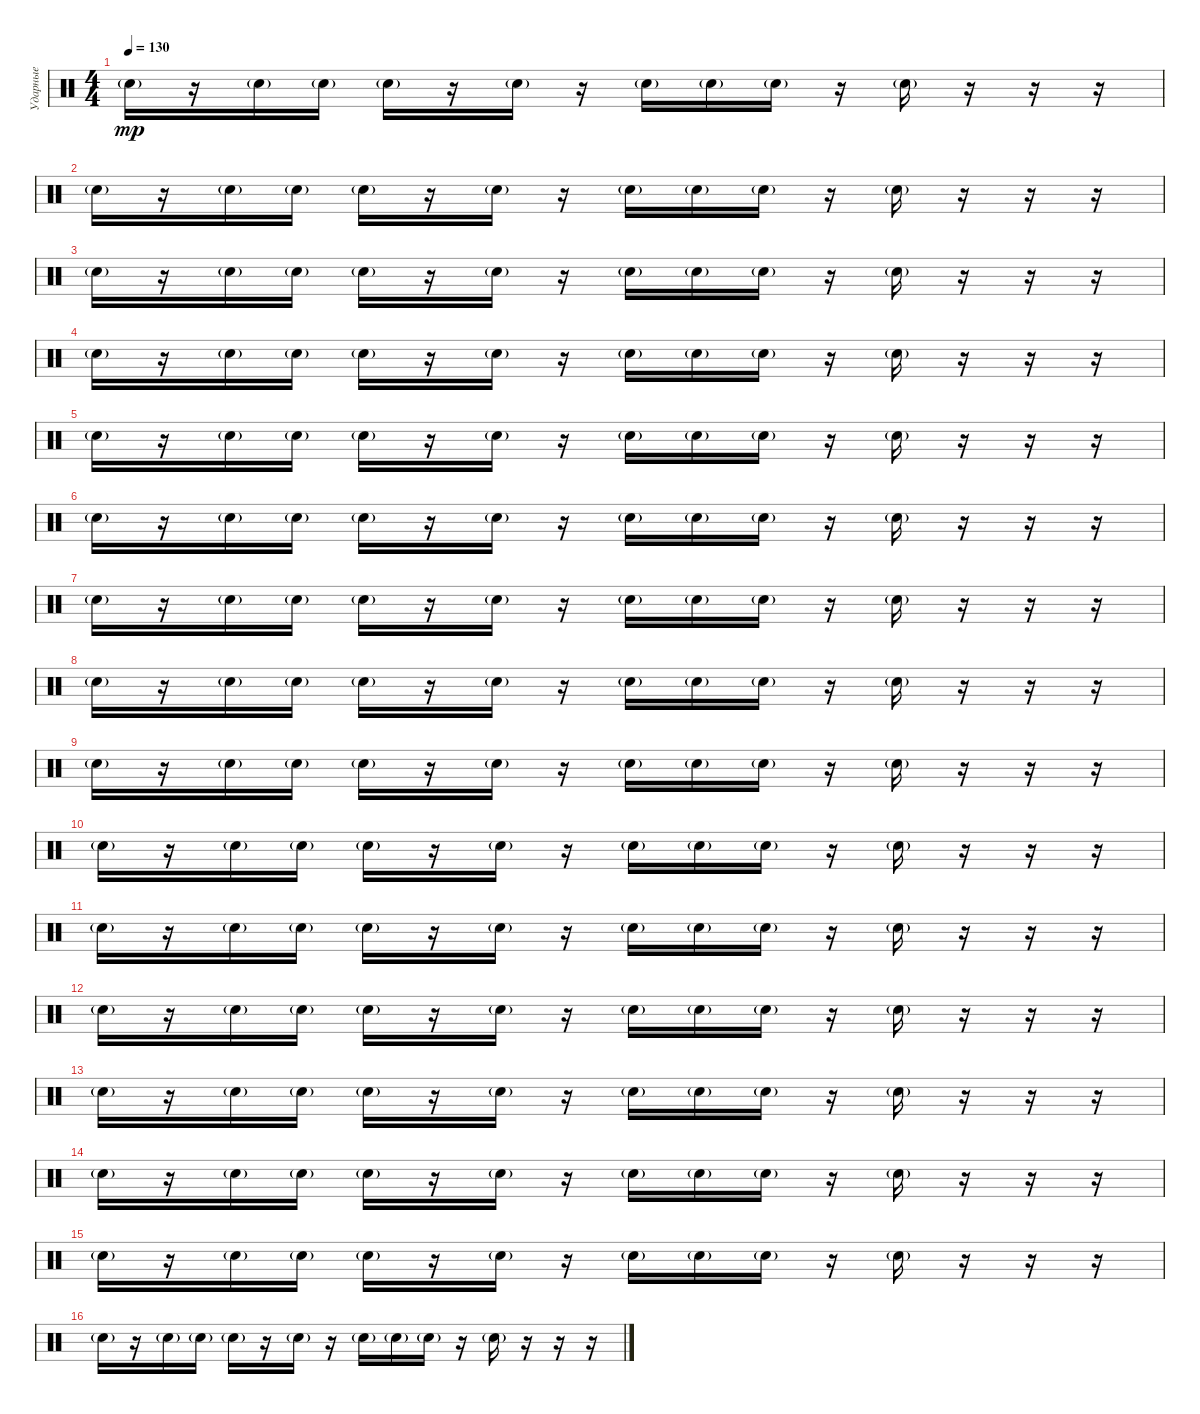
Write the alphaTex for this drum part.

\track ("Ударные" "Ударные") {instrument percussion}
\staff {score}
\articulation defaults
\ts (4 4)
\tempo 130
\clef neutral
\ks c "Electric Snare (hit)"{g}.16{dy mp}
r.16 "Electric Snare (hit)"{g}.16 "Electric Snare (hit)"{g}.16 "Electric Snare (hit)"{g}.16 r.16 "Electric Snare (hit)"{g}.16 r.16 "Electric Snare (hit)"{g}.16 "Electric Snare (hit)"{g}.16 "Electric Snare (hit)"{g}.16 r.16 "Electric Snare (hit)"{g}.16 r.16 r.16 r.16 |
"Electric Snare (hit)"{g}.16 r.16 "Electric Snare (hit)"{g}.16 "Electric Snare (hit)"{g}.16 "Electric Snare (hit)"{g}.16 r.16 "Electric Snare (hit)"{g}.16 r.16 "Electric Snare (hit)"{g}.16 "Electric Snare (hit)"{g}.16 "Electric Snare (hit)"{g}.16 r.16 "Electric Snare (hit)"{g}.16 r.16 r.16 r.16 |
"Electric Snare (hit)"{g}.16 r.16 "Electric Snare (hit)"{g}.16 "Electric Snare (hit)"{g}.16 "Electric Snare (hit)"{g}.16 r.16 "Electric Snare (hit)"{g}.16 r.16 "Electric Snare (hit)"{g}.16 "Electric Snare (hit)"{g}.16 "Electric Snare (hit)"{g}.16 r.16 "Electric Snare (hit)"{g}.16 r.16 r.16 r.16 |
"Electric Snare (hit)"{g}.16 r.16 "Electric Snare (hit)"{g}.16 "Electric Snare (hit)"{g}.16 "Electric Snare (hit)"{g}.16 r.16 "Electric Snare (hit)"{g}.16 r.16 "Electric Snare (hit)"{g}.16 "Electric Snare (hit)"{g}.16 "Electric Snare (hit)"{g}.16 r.16 "Electric Snare (hit)"{g}.16 r.16 r.16 r.16 |
"Electric Snare (hit)"{g}.16 r.16 "Electric Snare (hit)"{g}.16 "Electric Snare (hit)"{g}.16 "Electric Snare (hit)"{g}.16 r.16 "Electric Snare (hit)"{g}.16 r.16 "Electric Snare (hit)"{g}.16 "Electric Snare (hit)"{g}.16 "Electric Snare (hit)"{g}.16 r.16 "Electric Snare (hit)"{g}.16 r.16 r.16 r.16 |
"Electric Snare (hit)"{g}.16 r.16 "Electric Snare (hit)"{g}.16 "Electric Snare (hit)"{g}.16 "Electric Snare (hit)"{g}.16 r.16 "Electric Snare (hit)"{g}.16 r.16 "Electric Snare (hit)"{g}.16 "Electric Snare (hit)"{g}.16 "Electric Snare (hit)"{g}.16 r.16 "Electric Snare (hit)"{g}.16 r.16 r.16 r.16 |
"Electric Snare (hit)"{g}.16 r.16 "Electric Snare (hit)"{g}.16 "Electric Snare (hit)"{g}.16 "Electric Snare (hit)"{g}.16 r.16 "Electric Snare (hit)"{g}.16 r.16 "Electric Snare (hit)"{g}.16 "Electric Snare (hit)"{g}.16 "Electric Snare (hit)"{g}.16 r.16 "Electric Snare (hit)"{g}.16 r.16 r.16 r.16 |
"Electric Snare (hit)"{g}.16 r.16 "Electric Snare (hit)"{g}.16 "Electric Snare (hit)"{g}.16 "Electric Snare (hit)"{g}.16 r.16 "Electric Snare (hit)"{g}.16 r.16 "Electric Snare (hit)"{g}.16 "Electric Snare (hit)"{g}.16 "Electric Snare (hit)"{g}.16 r.16 "Electric Snare (hit)"{g}.16 r.16 r.16 r.16 |
"Electric Snare (hit)"{g}.16 r.16 "Electric Snare (hit)"{g}.16 "Electric Snare (hit)"{g}.16 "Electric Snare (hit)"{g}.16 r.16 "Electric Snare (hit)"{g}.16 r.16 "Electric Snare (hit)"{g}.16 "Electric Snare (hit)"{g}.16 "Electric Snare (hit)"{g}.16 r.16 "Electric Snare (hit)"{g}.16 r.16 r.16 r.16 |
"Electric Snare (hit)"{g}.16 r.16 "Electric Snare (hit)"{g}.16 "Electric Snare (hit)"{g}.16 "Electric Snare (hit)"{g}.16 r.16 "Electric Snare (hit)"{g}.16 r.16 "Electric Snare (hit)"{g}.16 "Electric Snare (hit)"{g}.16 "Electric Snare (hit)"{g}.16 r.16 "Electric Snare (hit)"{g}.16 r.16 r.16 r.16 |
"Electric Snare (hit)"{g}.16 r.16 "Electric Snare (hit)"{g}.16 "Electric Snare (hit)"{g}.16 "Electric Snare (hit)"{g}.16 r.16 "Electric Snare (hit)"{g}.16 r.16 "Electric Snare (hit)"{g}.16 "Electric Snare (hit)"{g}.16 "Electric Snare (hit)"{g}.16 r.16 "Electric Snare (hit)"{g}.16 r.16 r.16 r.16 |
"Electric Snare (hit)"{g}.16 r.16 "Electric Snare (hit)"{g}.16 "Electric Snare (hit)"{g}.16 "Electric Snare (hit)"{g}.16 r.16 "Electric Snare (hit)"{g}.16 r.16 "Electric Snare (hit)"{g}.16 "Electric Snare (hit)"{g}.16 "Electric Snare (hit)"{g}.16 r.16 "Electric Snare (hit)"{g}.16 r.16 r.16 r.16 |
"Electric Snare (hit)"{g}.16 r.16 "Electric Snare (hit)"{g}.16 "Electric Snare (hit)"{g}.16 "Electric Snare (hit)"{g}.16 r.16 "Electric Snare (hit)"{g}.16 r.16 "Electric Snare (hit)"{g}.16 "Electric Snare (hit)"{g}.16 "Electric Snare (hit)"{g}.16 r.16 "Electric Snare (hit)"{g}.16 r.16 r.16 r.16 |
"Electric Snare (hit)"{g}.16 r.16 "Electric Snare (hit)"{g}.16 "Electric Snare (hit)"{g}.16 "Electric Snare (hit)"{g}.16 r.16 "Electric Snare (hit)"{g}.16 r.16 "Electric Snare (hit)"{g}.16 "Electric Snare (hit)"{g}.16 "Electric Snare (hit)"{g}.16 r.16 "Electric Snare (hit)"{g}.16 r.16 r.16 r.16 |
"Electric Snare (hit)"{g}.16 r.16 "Electric Snare (hit)"{g}.16 "Electric Snare (hit)"{g}.16 "Electric Snare (hit)"{g}.16 r.16 "Electric Snare (hit)"{g}.16 r.16 "Electric Snare (hit)"{g}.16 "Electric Snare (hit)"{g}.16 "Electric Snare (hit)"{g}.16 r.16 "Electric Snare (hit)"{g}.16 r.16 r.16 r.16 |
"Electric Snare (hit)"{g}.16 r.16 "Electric Snare (hit)"{g}.16 "Electric Snare (hit)"{g}.16 "Electric Snare (hit)"{g}.16 r.16 "Electric Snare (hit)"{g}.16 r.16 "Electric Snare (hit)"{g}.16 "Electric Snare (hit)"{g}.16 "Electric Snare (hit)"{g}.16 r.16 "Electric Snare (hit)"{g}.16 r.16 r.16 r.16
